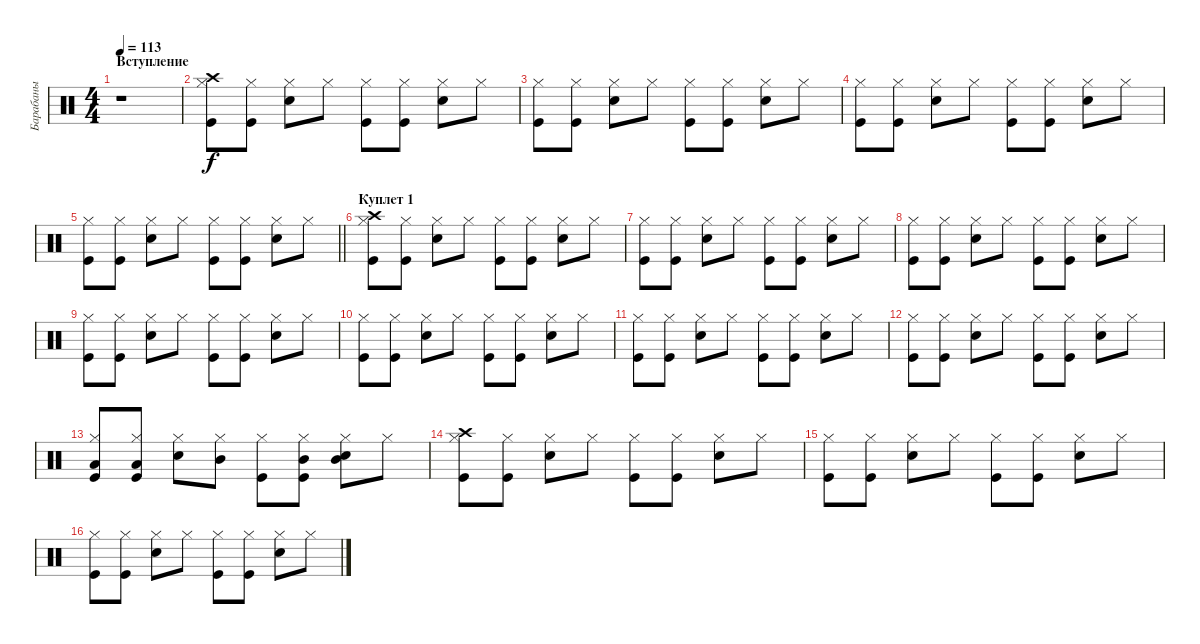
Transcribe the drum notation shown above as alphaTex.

\track ("Барабаны" "Барабаны") {instrument percussion}
\staff {score}
\articulation defaults
\ts (4 4)
\section ("" "Вступление")
\tempo 113
\clef neutral
\ks c
r.1{dy f} |
("Kick (hit)" "Hi-Hat (closed)" "Crash high (hit)").8 ("Kick (hit)" "Hi-Hat (closed)").8 ("Snare (hit) 2" "Hi-Hat (closed)").8 "Hi-Hat (closed)".8 ("Kick (hit)" "Hi-Hat (closed)").8 ("Kick (hit)" "Hi-Hat (closed)").8 ("Snare (hit) 2" "Hi-Hat (closed)").8 "Hi-Hat (closed)".8 |
("Kick (hit)" "Hi-Hat (closed)").8 ("Kick (hit)" "Hi-Hat (closed)").8 ("Snare (hit) 2" "Hi-Hat (closed)").8 "Hi-Hat (closed)".8 ("Kick (hit)" "Hi-Hat (closed)").8 ("Kick (hit)" "Hi-Hat (closed)").8 ("Snare (hit) 2" "Hi-Hat (closed)").8 "Hi-Hat (closed)".8 |
("Kick (hit)" "Hi-Hat (closed)").8 ("Kick (hit)" "Hi-Hat (closed)").8 ("Snare (hit) 2" "Hi-Hat (closed)").8 "Hi-Hat (closed)".8 ("Kick (hit)" "Hi-Hat (closed)").8 ("Kick (hit)" "Hi-Hat (closed)").8 ("Snare (hit) 2" "Hi-Hat (closed)").8 "Hi-Hat (closed)".8 |
\barLineRight lightlight
("Kick (hit)" "Hi-Hat (closed)").8 ("Kick (hit)" "Hi-Hat (closed)").8 ("Snare (hit) 2" "Hi-Hat (closed)").8 "Hi-Hat (closed)".8 ("Kick (hit)" "Hi-Hat (closed)").8 ("Kick (hit)" "Hi-Hat (closed)").8 ("Snare (hit) 2" "Hi-Hat (closed)").8 "Hi-Hat (closed)".8 |
\section ("" "Куплет 1")
("Kick (hit)" "Hi-Hat (closed)" "Crash high (hit)").8 ("Kick (hit)" "Hi-Hat (closed)").8 ("Snare (hit) 2" "Hi-Hat (closed)").8 "Hi-Hat (closed)".8 ("Kick (hit)" "Hi-Hat (closed)").8 ("Kick (hit)" "Hi-Hat (closed)").8 ("Snare (hit) 2" "Hi-Hat (closed)").8 "Hi-Hat (closed)".8 |
("Kick (hit)" "Hi-Hat (closed)").8 ("Kick (hit)" "Hi-Hat (closed)").8 ("Snare (hit) 2" "Hi-Hat (closed)").8 "Hi-Hat (closed)".8 ("Kick (hit)" "Hi-Hat (closed)").8 ("Kick (hit)" "Hi-Hat (closed)").8 ("Snare (hit) 2" "Hi-Hat (closed)").8 "Hi-Hat (closed)".8 |
("Kick (hit)" "Hi-Hat (closed)").8 ("Kick (hit)" "Hi-Hat (closed)").8 ("Snare (hit) 2" "Hi-Hat (closed)").8 "Hi-Hat (closed)".8 ("Kick (hit)" "Hi-Hat (closed)").8 ("Kick (hit)" "Hi-Hat (closed)").8 ("Snare (hit) 2" "Hi-Hat (closed)").8 "Hi-Hat (closed)".8 |
("Kick (hit)" "Hi-Hat (closed)").8 ("Kick (hit)" "Hi-Hat (closed)").8 ("Snare (hit) 2" "Hi-Hat (closed)").8 "Hi-Hat (closed)".8 ("Kick (hit)" "Hi-Hat (closed)").8 ("Kick (hit)" "Hi-Hat (closed)").8 ("Snare (hit) 2" "Hi-Hat (closed)").8 "Hi-Hat (closed)".8 |
("Kick (hit)" "Hi-Hat (closed)").8 ("Kick (hit)" "Hi-Hat (closed)").8 ("Snare (hit) 2" "Hi-Hat (closed)").8 "Hi-Hat (closed)".8 ("Kick (hit)" "Hi-Hat (closed)").8 ("Kick (hit)" "Hi-Hat (closed)").8 ("Snare (hit) 2" "Hi-Hat (closed)").8 "Hi-Hat (closed)".8 |
("Kick (hit)" "Hi-Hat (closed)").8 ("Kick (hit)" "Hi-Hat (closed)").8 ("Snare (hit) 2" "Hi-Hat (closed)").8 "Hi-Hat (closed)".8 ("Kick (hit)" "Hi-Hat (closed)").8 ("Kick (hit)" "Hi-Hat (closed)").8 ("Snare (hit) 2" "Hi-Hat (closed)").8 "Hi-Hat (closed)".8 |
("Kick (hit)" "Hi-Hat (closed)").8 ("Kick (hit)" "Hi-Hat (closed)").8 ("Snare (hit) 2" "Hi-Hat (closed)").8 "Hi-Hat (closed)".8 ("Kick (hit)" "Hi-Hat (closed)").8 ("Kick (hit)" "Hi-Hat (closed)").8 ("Snare (hit) 2" "Hi-Hat (closed)").8 "Hi-Hat (closed)".8 |
("Kick (hit)" "Hi-Hat (closed)" "Low Tom (hit)").8 ("Kick (hit)" "Hi-Hat (closed)" "Low Tom (hit)").8 ("Snare (hit) 2" "Hi-Hat (closed)").8 ("Hi-Hat (closed)" "Mid Tom (hit)").8 ("Kick (hit)" "Hi-Hat (closed)").8 ("Kick (hit)" "Hi-Hat (closed)" "Mid Tom (hit)").8 ("Snare (hit) 2" "Hi-Hat (closed)" "Mid Tom (hit)").8 "Hi-Hat (closed)".8 |
("Kick (hit)" "Hi-Hat (closed)" "Crash high (hit)").8 ("Kick (hit)" "Hi-Hat (closed)").8 ("Snare (hit) 2" "Hi-Hat (closed)").8 "Hi-Hat (closed)".8 ("Kick (hit)" "Hi-Hat (closed)").8 ("Kick (hit)" "Hi-Hat (closed)").8 ("Snare (hit) 2" "Hi-Hat (closed)").8 "Hi-Hat (closed)".8 |
("Kick (hit)" "Hi-Hat (closed)").8 ("Kick (hit)" "Hi-Hat (closed)").8 ("Snare (hit) 2" "Hi-Hat (closed)").8 "Hi-Hat (closed)".8 ("Kick (hit)" "Hi-Hat (closed)").8 ("Kick (hit)" "Hi-Hat (closed)").8 ("Snare (hit) 2" "Hi-Hat (closed)").8 "Hi-Hat (closed)".8 |
("Kick (hit)" "Hi-Hat (closed)").8 ("Kick (hit)" "Hi-Hat (closed)").8 ("Snare (hit) 2" "Hi-Hat (closed)").8 "Hi-Hat (closed)".8 ("Kick (hit)" "Hi-Hat (closed)").8 ("Kick (hit)" "Hi-Hat (closed)").8 ("Snare (hit) 2" "Hi-Hat (closed)").8 "Hi-Hat (closed)".8
